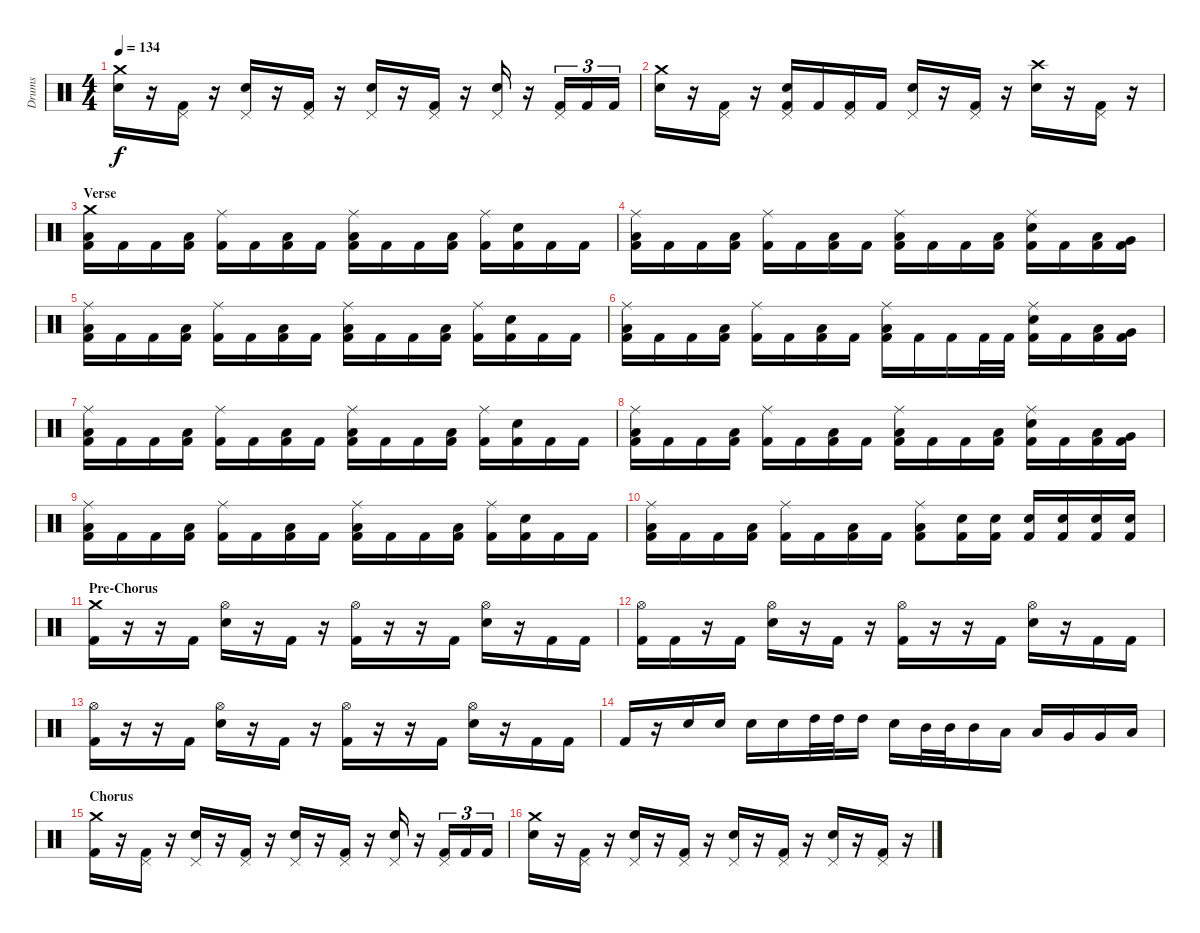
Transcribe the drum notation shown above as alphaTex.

\track ("Drums" "Drums") {instrument percussion}
\staff {score}
\articulation defaults
\ts (4 4)
\tempo 134
\clef neutral
\ks c
("Crash medium (hit)" "Electric Snare (hit)").16{dy f} r.16 ("Pedal Hi-Hat (hit)" "Kick (hit) 2").16 r.16 ("Pedal Hi-Hat (hit)" "Electric Snare (hit)").16 r.16 ("Pedal Hi-Hat (hit)" "Kick (hit) 2").16 r.16 ("Pedal Hi-Hat (hit)" "Electric Snare (hit)").16 r.16 ("Pedal Hi-Hat (hit)" "Kick (hit) 2").16 r.16 ("Pedal Hi-Hat (hit)" "Electric Snare (hit)").16 r.16 ("Pedal Hi-Hat (hit)" "Kick (hit) 2").16{tu (3 2)} "Kick (hit) 2".16{tu (3 2)} "Kick (hit) 2".16{tu (3 2)} |
("Crash medium (hit)" "Electric Snare (hit)").16 r.16 ("Pedal Hi-Hat (hit)" "Kick (hit) 2").16 r.16 ("Pedal Hi-Hat (hit)" "Electric Snare (hit)" "Kick (hit) 2").16 "Kick (hit) 2".16 ("Pedal Hi-Hat (hit)" "Kick (hit) 2").16 "Kick (hit) 2".16 ("Pedal Hi-Hat (hit)" "Electric Snare (hit)").16 r.16 ("Pedal Hi-Hat (hit)" "Kick (hit) 2").16 r.16 ("Crash high (hit)" "Electric Snare (hit)").16 r.16 ("Pedal Hi-Hat (hit)" "Kick (hit) 2").16 r.16 |
\section ("" "Verse")
("Crash medium (hit)" "Low Floor Tom (hit)" "Kick (hit) 2").16 "Kick (hit) 2".16 "Kick (hit) 2".16 ("Low Floor Tom (hit)" "Kick (hit) 2").16 ("Ride (middle)" "Kick (hit) 2").16 "Kick (hit) 2".16 ("Low Floor Tom (hit)" "Kick (hit) 2").16 "Kick (hit) 2".16 ("Ride (middle)" "Low Floor Tom (hit)" "Kick (hit) 2").16 "Kick (hit) 2".16 "Kick (hit) 2".16 ("Low Floor Tom (hit)" "Kick (hit) 2").16 ("Ride (middle)" "Kick (hit) 2").16 ("Electric Snare (hit)" "Kick (hit) 2").16 "Kick (hit) 2".16 "Kick (hit) 2".16 |
("Ride (middle)" "Low Floor Tom (hit)" "Kick (hit) 2").16 "Kick (hit) 2".16 "Kick (hit) 2".16 ("Low Floor Tom (hit)" "Kick (hit) 2").16 ("Ride (middle)" "Kick (hit) 2").16 "Kick (hit) 2".16 ("Low Floor Tom (hit)" "Kick (hit) 2").16 "Kick (hit) 2".16 ("Ride (middle)" "Low Floor Tom (hit)" "Kick (hit) 2").16 "Kick (hit) 2".16 "Kick (hit) 2".16 ("Low Floor Tom (hit)" "Kick (hit) 2").16 ("Ride (middle)" "Electric Snare (hit)" "Kick (hit) 2").16 "Kick (hit) 2".16 ("Low Tom (hit)" "Kick (hit) 2").16 ("Very Low Tom (hit)" "Kick (hit) 2").16 |
("Ride (middle)" "Low Floor Tom (hit)" "Kick (hit) 2").16 "Kick (hit) 2".16 "Kick (hit) 2".16 ("Low Floor Tom (hit)" "Kick (hit) 2").16 ("Ride (middle)" "Kick (hit) 2").16 "Kick (hit) 2".16 ("Low Floor Tom (hit)" "Kick (hit) 2").16 "Kick (hit) 2".16 ("Ride (middle)" "Low Floor Tom (hit)" "Kick (hit) 2").16 "Kick (hit) 2".16 "Kick (hit) 2".16 ("Low Floor Tom (hit)" "Kick (hit) 2").16 ("Ride (middle)" "Kick (hit) 2").16 ("Electric Snare (hit)" "Kick (hit) 2").16 "Kick (hit) 2".16 "Kick (hit) 2".16 |
("Ride (middle)" "Low Floor Tom (hit)" "Kick (hit) 2").16 "Kick (hit) 2".16 "Kick (hit) 2".16 ("Low Floor Tom (hit)" "Kick (hit) 2").16 ("Ride (middle)" "Kick (hit) 2").16 "Kick (hit) 2".16 ("Low Floor Tom (hit)" "Kick (hit) 2").16 "Kick (hit) 2".16 ("Ride (middle)" "Low Floor Tom (hit)" "Kick (hit) 2").16 "Kick (hit) 2".16 "Kick (hit) 2".16 "Kick (hit) 2".32 "Kick (hit) 2".32 ("Ride (middle)" "Electric Snare (hit)" "Kick (hit) 2").16 "Kick (hit) 2".16 ("Low Tom (hit)" "Kick (hit) 2").16 ("Very Low Tom (hit)" "Kick (hit) 2").16 |
("Ride (middle)" "Low Floor Tom (hit)" "Kick (hit) 2").16 "Kick (hit) 2".16 "Kick (hit) 2".16 ("Low Floor Tom (hit)" "Kick (hit) 2").16 ("Ride (middle)" "Kick (hit) 2").16 "Kick (hit) 2".16 ("Low Floor Tom (hit)" "Kick (hit) 2").16 "Kick (hit) 2".16 ("Ride (middle)" "Low Floor Tom (hit)" "Kick (hit) 2").16 "Kick (hit) 2".16 "Kick (hit) 2".16 ("Low Floor Tom (hit)" "Kick (hit) 2").16 ("Ride (middle)" "Kick (hit) 2").16 ("Electric Snare (hit)" "Kick (hit) 2").16 "Kick (hit) 2".16 "Kick (hit) 2".16 |
("Ride (middle)" "Low Floor Tom (hit)" "Kick (hit) 2").16 "Kick (hit) 2".16 "Kick (hit) 2".16 ("Low Floor Tom (hit)" "Kick (hit) 2").16 ("Ride (middle)" "Kick (hit) 2").16 "Kick (hit) 2".16 ("Low Floor Tom (hit)" "Kick (hit) 2").16 "Kick (hit) 2".16 ("Ride (middle)" "Low Floor Tom (hit)" "Kick (hit) 2").16 "Kick (hit) 2".16 "Kick (hit) 2".16 ("Low Floor Tom (hit)" "Kick (hit) 2").16 ("Ride (middle)" "Electric Snare (hit)" "Kick (hit) 2").16 "Kick (hit) 2".16 ("Low Tom (hit)" "Kick (hit) 2").16 ("Very Low Tom (hit)" "Kick (hit) 2").16 |
("Ride (middle)" "Low Floor Tom (hit)" "Kick (hit) 2").16 "Kick (hit) 2".16 "Kick (hit) 2".16 ("Low Floor Tom (hit)" "Kick (hit) 2").16 ("Ride (middle)" "Kick (hit) 2").16 "Kick (hit) 2".16 ("Low Floor Tom (hit)" "Kick (hit) 2").16 "Kick (hit) 2".16 ("Ride (middle)" "Low Floor Tom (hit)" "Kick (hit) 2").16 "Kick (hit) 2".16 "Kick (hit) 2".16 ("Low Floor Tom (hit)" "Kick (hit) 2").16 ("Ride (middle)" "Kick (hit) 2").16 ("Electric Snare (hit)" "Kick (hit) 2").16 "Kick (hit) 2".16 "Kick (hit) 2".16 |
("Ride (middle)" "Low Floor Tom (hit)" "Kick (hit) 2").16 "Kick (hit) 2".16 "Kick (hit) 2".16 ("Low Floor Tom (hit)" "Kick (hit) 2").16 ("Ride (middle)" "Kick (hit) 2").16 "Kick (hit) 2".16 ("Low Floor Tom (hit)" "Kick (hit) 2").16 "Kick (hit) 2".16 ("Ride (middle)" "Low Floor Tom (hit)" "Kick (hit) 2").8 ("Electric Snare (hit)" "Kick (hit) 2").16 ("Electric Snare (hit)" "Kick (hit) 2").16 ("Electric Snare (hit)" "Kick (hit) 2").16 ("Electric Snare (hit)" "Kick (hit) 2").16 ("Electric Snare (hit)" "Kick (hit) 2").16 ("Electric Snare (hit)" "Kick (hit) 2").16 |
\section ("" "Pre-Chorus")
("Crash medium (hit)" "Kick (hit) 2").16 r.16 r.16 "Kick (hit) 2".16 ("Hi-Hat (open)" "Electric Snare (hit)").16 r.16 "Kick (hit) 2".16 r.16 ("Hi-Hat (open)" "Kick (hit) 2").16 r.16 r.16 "Kick (hit) 2".16 ("Hi-Hat (open)" "Electric Snare (hit)").16 r.16 "Kick (hit) 2".16 "Kick (hit) 2".16 |
("Hi-Hat (open)" "Kick (hit) 2").16 "Kick (hit) 2".16 r.16 "Kick (hit) 2".16 ("Hi-Hat (open)" "Electric Snare (hit)").16 r.16 "Kick (hit) 2".16 r.16 ("Hi-Hat (open)" "Kick (hit) 2").16 r.16 r.16 "Kick (hit) 2".16 ("Hi-Hat (open)" "Electric Snare (hit)").16 r.16 "Kick (hit) 2".16 "Kick (hit) 2".16 |
("Hi-Hat (open)" "Kick (hit) 2").16 r.16 r.16 "Kick (hit) 2".16 ("Hi-Hat (open)" "Electric Snare (hit)").16 r.16 "Kick (hit) 2".16 r.16 ("Hi-Hat (open)" "Kick (hit) 2").16 r.16 r.16 "Kick (hit) 2".16 ("Hi-Hat (open)" "Electric Snare (hit)").16 r.16 "Kick (hit) 2".16 "Kick (hit) 2".16 |
"Kick (hit) 2".16 r.16 "Electric Snare (hit)".16 "Electric Snare (hit)".16 "Electric Snare (hit)".16 "Electric Snare (hit)".16 "High Tom (hit)".32 "High Tom (hit)".32 "High Tom (hit)".16 "Electric Snare (hit)".16 "Mid Tom (hit)".32 "Mid Tom (hit)".32 "Mid Tom (hit)".16 "Low Tom (hit)".16 "Low Tom (hit)".16 "Very Low Tom (hit)".16 "Very Low Tom (hit)".16 "Low Floor Tom (hit)".16 |
\section ("" "Chorus")
("Crash medium (hit)" "Kick (hit) 2").16 r.16 ("Pedal Hi-Hat (hit)" "Kick (hit) 2").16 r.16 ("Pedal Hi-Hat (hit)" "Electric Snare (hit)").16 r.16 ("Pedal Hi-Hat (hit)" "Kick (hit) 2").16 r.16 ("Pedal Hi-Hat (hit)" "Electric Snare (hit)").16 r.16 ("Pedal Hi-Hat (hit)" "Kick (hit) 2").16 r.16 ("Pedal Hi-Hat (hit)" "Electric Snare (hit)").16 r.16 ("Pedal Hi-Hat (hit)" "Kick (hit) 2").16{tu (3 2)} "Kick (hit) 2".16{tu (3 2)} "Kick (hit) 2".16{tu (3 2)} |
("Crash medium (hit)" "Electric Snare (hit)").16 r.16 ("Pedal Hi-Hat (hit)" "Kick (hit) 2").16 r.16 ("Pedal Hi-Hat (hit)" "Electric Snare (hit)").16 r.16 ("Pedal Hi-Hat (hit)" "Kick (hit) 2").16 r.16 ("Pedal Hi-Hat (hit)" "Electric Snare (hit)").16 r.16 ("Pedal Hi-Hat (hit)" "Kick (hit) 2").16 r.16 ("Pedal Hi-Hat (hit)" "Electric Snare (hit)").16 r.16 ("Pedal Hi-Hat (hit)" "Kick (hit) 2").16 r.16
